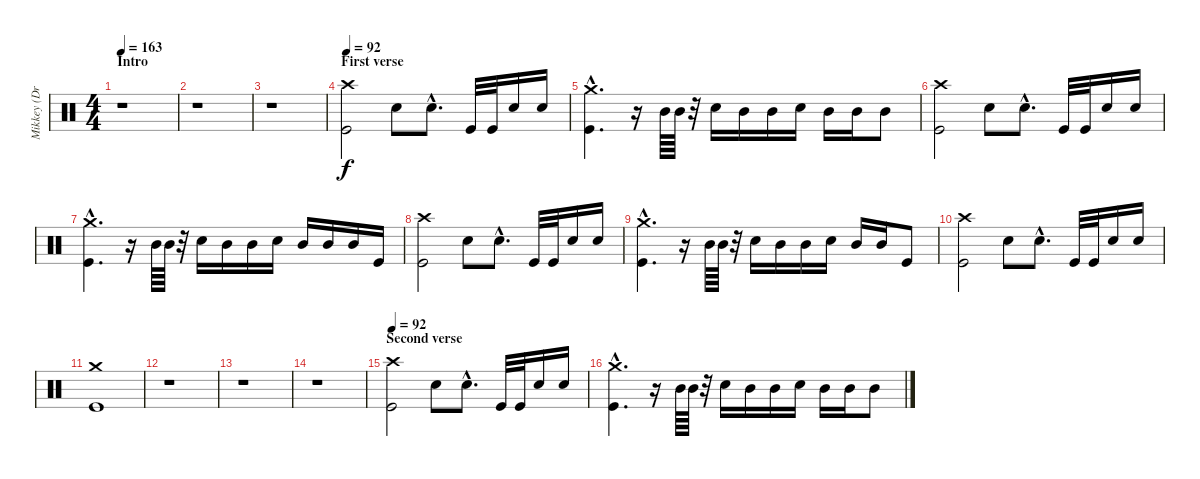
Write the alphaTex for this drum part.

\track ("Mikkey (Drums)" "Mikkey (Dr") {instrument percussion}
\staff {score}
\articulation defaults
\ts (4 4)
\section ("" "Intro")
\tempo 163
\tempo 92
\tempo 163
\clef neutral
\ks c
r.1{dy f} |
r.1 |
r.1 |
\section ("" "First verse")
\tempo 92
("Crash high (hit)" "Kick (hit)").2 "Electric Snare (hit)".8 "Electric Snare (hit)"{hac}.8{d} "Kick (hit)".32 "Kick (hit)".32 "Electric Snare (hit)".16 "Electric Snare (hit)".16 |
("Crash medium (hit)"{hac} "Kick (hit)"{hac}).4{d} r.16 "Mid Tom (hit)".64 "Mid Tom (hit)".64 r.32 "Electric Snare (hit)".16 "Mid Tom (hit)".16 "Mid Tom (hit)".16 "Electric Snare (hit)".16 "Mid Tom (hit)".16 "Mid Tom (hit)".16 "Mid Tom (hit)".8 |
("Crash high (hit)" "Kick (hit)").2 "Electric Snare (hit)".8 "Electric Snare (hit)"{hac}.8{d} "Kick (hit)".32 "Kick (hit)".32 "Electric Snare (hit)".16 "Electric Snare (hit)".16 |
("Crash medium (hit)"{hac} "Kick (hit)"{hac}).4{d} r.16 "Mid Tom (hit)".64 "Mid Tom (hit)".64 r.32 "Electric Snare (hit)".16 "Mid Tom (hit)".16 "Mid Tom (hit)".16 "Electric Snare (hit)".16 "Mid Tom (hit)".16 "Mid Tom (hit)".16 "Mid Tom (hit)".16 "Kick (hit)".16 |
("Crash high (hit)" "Kick (hit)").2 "Electric Snare (hit)".8 "Electric Snare (hit)"{hac}.8{d} "Kick (hit)".32 "Kick (hit)".32 "Electric Snare (hit)".16 "Electric Snare (hit)".16 |
("Crash medium (hit)"{hac} "Kick (hit)"{hac}).4{d} r.16 "Mid Tom (hit)".64 "Mid Tom (hit)".64 r.32 "Electric Snare (hit)".16 "Mid Tom (hit)".16 "Mid Tom (hit)".16 "Electric Snare (hit)".16 "Mid Tom (hit)".16 "Mid Tom (hit)".16 "Kick (hit)".8 |
("Crash high (hit)" "Kick (hit)").2 "Electric Snare (hit)".8 "Electric Snare (hit)"{hac}.8{d} "Kick (hit)".32 "Kick (hit)".32 "Electric Snare (hit)".16 "Electric Snare (hit)".16 |
("Crash medium (hit)" "Kick (hit)").1 |
r.1 |
r.1 |
r.1 |
\section ("" "Second verse")
\tempo 92
("Crash high (hit)" "Kick (hit)").2 "Electric Snare (hit)".8 "Electric Snare (hit)"{hac}.8{d} "Kick (hit)".32 "Kick (hit)".32 "Electric Snare (hit)".16 "Electric Snare (hit)".16 |
("Crash medium (hit)"{hac} "Kick (hit)"{hac}).4{d} r.16 "Mid Tom (hit)".64 "Mid Tom (hit)".64 r.32 "Electric Snare (hit)".16 "Mid Tom (hit)".16 "Mid Tom (hit)".16 "Electric Snare (hit)".16 "Mid Tom (hit)".16 "Mid Tom (hit)".16 "Mid Tom (hit)".8
